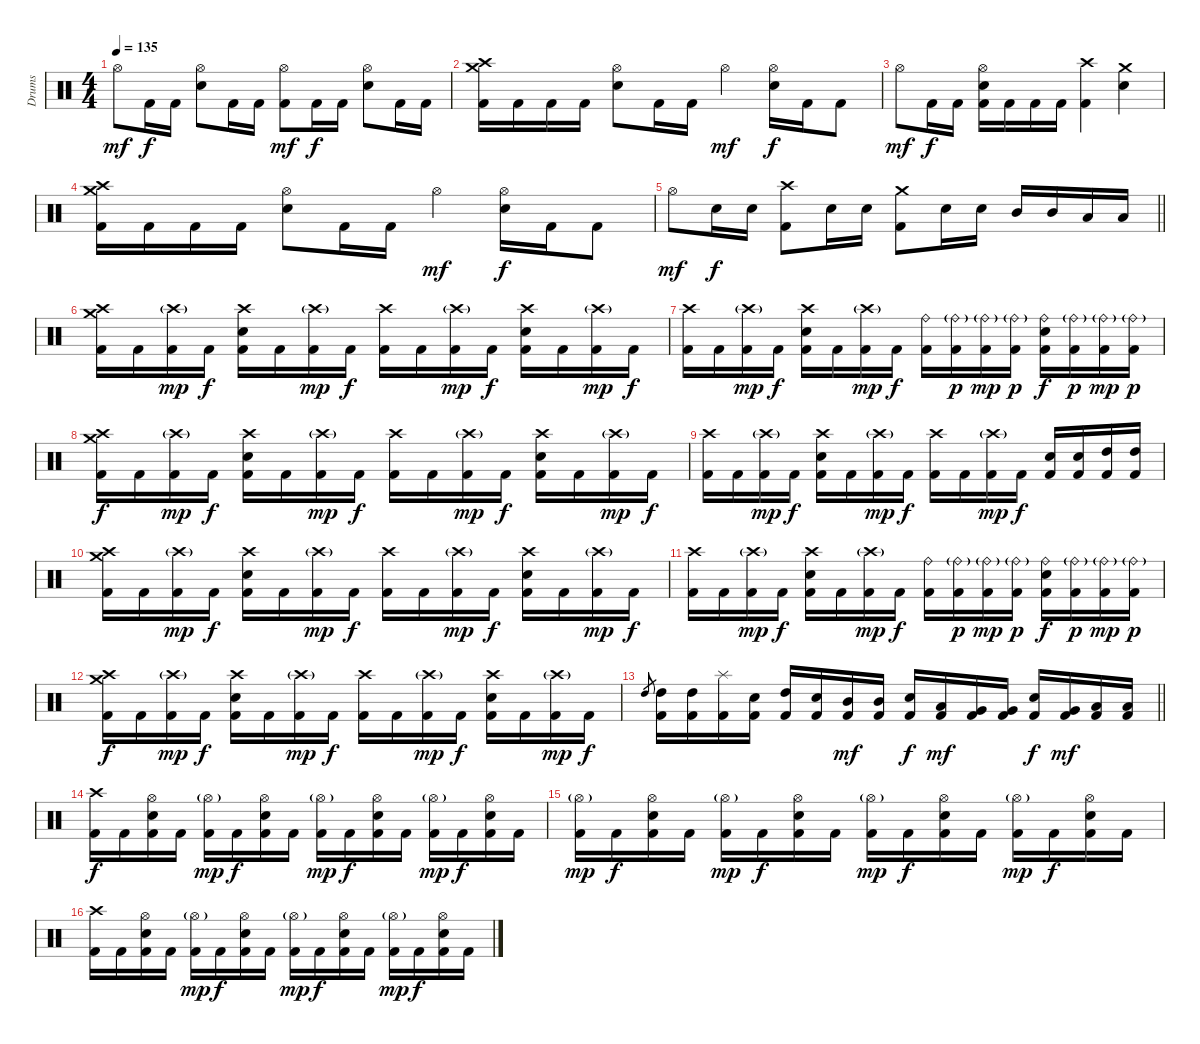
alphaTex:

\track ("Drums" "Drums") {instrument percussion}
\staff {score}
\articulation defaults
\ts (4 4)
\tempo 135
\clef neutral
\ks c "Hi-Hat (open)".8{dy mf} "Kick (hit) 2".16{dy f} "Kick (hit) 2".16
("Hi-Hat (open)" "Electric Snare (hit)").8 "Kick (hit) 2".16 "Kick (hit) 2".16 ("Hi-Hat (open)" "Kick (hit) 2").8{dy mf} "Kick (hit) 2".16{dy f} "Kick (hit) 2".16 ("Hi-Hat (open)" "Electric Snare (hit)").8 "Kick (hit) 2".16 "Kick (hit) 2".16 |
("Crash high (hit)" "Crash medium (hit)" "Kick (hit) 2").16 "Kick (hit) 2".16 "Kick (hit) 2".16 "Kick (hit) 2".16 ("Hi-Hat (open)" "Electric Snare (hit)").8 "Kick (hit) 2".16 "Kick (hit) 2".16 "Hi-Hat (open)".4{dy mf} ("Hi-Hat (open)" "Electric Snare (hit)").16{dy f} "Kick (hit) 2".16 "Kick (hit) 2".8 |
"Hi-Hat (open)".8{dy mf} "Kick (hit) 2".16{dy f} "Kick (hit) 2".16 ("Hi-Hat (open)" "Electric Snare (hit)" "Kick (hit) 2").16 "Kick (hit) 2".16 "Kick (hit) 2".16 "Kick (hit) 2".16 ("Crash high (hit)" "Kick (hit) 2").4 ("Crash medium (hit)" "Electric Snare (hit)").4 |
("Crash high (hit)" "Crash medium (hit)" "Kick (hit) 2").16 "Kick (hit) 2".16 "Kick (hit) 2".16 "Kick (hit) 2".16 ("Hi-Hat (open)" "Electric Snare (hit)").8 "Kick (hit) 2".16 "Kick (hit) 2".16 "Hi-Hat (open)".4{dy mf} ("Hi-Hat (open)" "Electric Snare (hit)").16{dy f} "Kick (hit) 2".16 "Kick (hit) 2".8 |
\barLineRight lightlight "Hi-Hat (open)".8{dy mf} "Electric Snare (hit)".16{dy f} "Electric Snare (hit)".16
("Crash high (hit)" "Kick (hit) 2").8 "Electric Snare (hit)".16 "Electric Snare (hit)".16 ("Crash medium (hit)" "Kick (hit) 2").8 "Electric Snare (hit)".16 "Electric Snare (hit)".16 "Mid Tom (hit)".16 "Mid Tom (hit)".16 "Low Tom (hit)".16 "Low Tom (hit)".16 |
("Crash high (hit)" "Crash medium (hit)" "Kick (hit) 2").16 "Kick (hit) 2".16 ("Crash high (hit)"{g} "Kick (hit) 2").16{dy mp} "Kick (hit) 2".16{dy f} ("Crash high (hit)" "Electric Snare (hit)" "Kick (hit) 2").16 "Kick (hit) 2".16 ("Crash high (hit)"{g} "Kick (hit) 2").16{dy mp} "Kick (hit) 2".16{dy f} ("Crash high (hit)" "Kick (hit) 2").16 "Kick (hit) 2".16 ("Crash high (hit)"{g} "Kick (hit) 2").16{dy mp} "Kick (hit) 2".16{dy f} ("Crash high (hit)" "Electric Snare (hit)" "Kick (hit) 2").16 "Kick (hit) 2".16 ("Crash high (hit)"{g} "Kick (hit) 2").16{dy mp} "Kick (hit) 2".16{dy f} |
("Crash high (hit)" "Kick (hit) 2").16 "Kick (hit) 2".16 ("Crash high (hit)"{g} "Kick (hit) 2").16{dy mp} "Kick (hit) 2".16{dy f} ("Crash high (hit)" "Electric Snare (hit)" "Kick (hit) 2").16 "Kick (hit) 2".16 ("Crash high (hit)"{g} "Kick (hit) 2").16{dy mp} "Kick (hit) 2".16{dy f} ("Ride (bell)" "Kick (hit) 2").16 ("Ride (bell)"{g} "Kick (hit) 2").16{dy p} ("Ride (bell)"{g} "Kick (hit) 2").16{dy mp} ("Ride (bell)"{g} "Kick (hit) 2").16{dy p} ("Ride (bell)" "Electric Snare (hit)" "Kick (hit) 2").16{dy f} ("Ride (bell)"{g} "Kick (hit) 2").16{dy p} ("Ride (bell)"{g} "Kick (hit) 2").16{dy mp} ("Ride (bell)"{g} "Kick (hit) 2").16{dy p} |
("Crash high (hit)" "Crash medium (hit)" "Kick (hit) 2").16{dy f} "Kick (hit) 2".16 ("Crash high (hit)"{g} "Kick (hit) 2").16{dy mp} "Kick (hit) 2".16{dy f} ("Crash high (hit)" "Electric Snare (hit)" "Kick (hit) 2").16 "Kick (hit) 2".16 ("Crash high (hit)"{g} "Kick (hit) 2").16{dy mp} "Kick (hit) 2".16{dy f} ("Crash high (hit)" "Kick (hit) 2").16 "Kick (hit) 2".16 ("Crash high (hit)"{g} "Kick (hit) 2").16{dy mp} "Kick (hit) 2".16{dy f} ("Crash high (hit)" "Electric Snare (hit)" "Kick (hit) 2").16 "Kick (hit) 2".16 ("Crash high (hit)"{g} "Kick (hit) 2").16{dy mp} "Kick (hit) 2".16{dy f} |
("Crash high (hit)" "Kick (hit) 2").16 "Kick (hit) 2".16 ("Crash high (hit)"{g} "Kick (hit) 2").16{dy mp} "Kick (hit) 2".16{dy f} ("Crash high (hit)" "Electric Snare (hit)" "Kick (hit) 2").16 "Kick (hit) 2".16 ("Crash high (hit)"{g} "Kick (hit) 2").16{dy mp} "Kick (hit) 2".16{dy f} ("Crash high (hit)" "Kick (hit) 2").16 "Kick (hit) 2".16 ("Crash high (hit)"{g} "Kick (hit) 2").16{dy mp} "Kick (hit) 2".16{dy f} ("Electric Snare (hit)" "Kick (hit) 2").16 ("Electric Snare (hit)" "Kick (hit) 2").16 ("High Tom (hit)" "Kick (hit) 2").16 ("High Tom (hit)" "Kick (hit) 2").16 |
("Crash high (hit)" "Crash medium (hit)" "Kick (hit) 2").16 "Kick (hit) 2".16 ("Crash high (hit)"{g} "Kick (hit) 2").16{dy mp} "Kick (hit) 2".16{dy f} ("Crash high (hit)" "Electric Snare (hit)" "Kick (hit) 2").16 "Kick (hit) 2".16 ("Crash high (hit)"{g} "Kick (hit) 2").16{dy mp} "Kick (hit) 2".16{dy f} ("Crash high (hit)" "Kick (hit) 2").16 "Kick (hit) 2".16 ("Crash high (hit)"{g} "Kick (hit) 2").16{dy mp} "Kick (hit) 2".16{dy f} ("Crash high (hit)" "Electric Snare (hit)" "Kick (hit) 2").16 "Kick (hit) 2".16 ("Crash high (hit)"{g} "Kick (hit) 2").16{dy mp} "Kick (hit) 2".16{dy f} |
("Crash high (hit)" "Kick (hit) 2").16 "Kick (hit) 2".16 ("Crash high (hit)"{g} "Kick (hit) 2").16{dy mp} "Kick (hit) 2".16{dy f} ("Crash high (hit)" "Electric Snare (hit)" "Kick (hit) 2").16 "Kick (hit) 2".16 ("Crash high (hit)"{g} "Kick (hit) 2").16{dy mp} "Kick (hit) 2".16{dy f} ("Ride (bell)" "Kick (hit) 2").16 ("Ride (bell)"{g} "Kick (hit) 2").16{dy p} ("Ride (bell)"{g} "Kick (hit) 2").16{dy mp} ("Ride (bell)"{g} "Kick (hit) 2").16{dy p} ("Ride (bell)" "Electric Snare (hit)" "Kick (hit) 2").16{dy f} ("Ride (bell)"{g} "Kick (hit) 2").16{dy p} ("Ride (bell)"{g} "Kick (hit) 2").16{dy mp} ("Ride (bell)"{g} "Kick (hit) 2").16{dy p} |
("Crash high (hit)" "Crash medium (hit)" "Kick (hit) 2").16{dy f} "Kick (hit) 2".16 ("Crash high (hit)"{g} "Kick (hit) 2").16{dy mp} "Kick (hit) 2".16{dy f} ("Crash high (hit)" "Electric Snare (hit)" "Kick (hit) 2").16 "Kick (hit) 2".16 ("Crash high (hit)"{g} "Kick (hit) 2").16{dy mp} "Kick (hit) 2".16{dy f} ("Crash high (hit)" "Kick (hit) 2").16 "Kick (hit) 2".16 ("Crash high (hit)"{g} "Kick (hit) 2").16{dy mp} "Kick (hit) 2".16{dy f} ("Crash high (hit)" "Electric Snare (hit)" "Kick (hit) 2").16 "Kick (hit) 2".16 ("Crash high (hit)"{g} "Kick (hit) 2").16{dy mp} "Kick (hit) 2".16{dy f} |
\barLineRight lightlight "High Tom (hit)".8{gr}
("High Tom (hit)" "Kick (hit) 2").16 ("High Tom (hit)" "Kick (hit) 2").16 ("Splash (hit)" "Kick (hit) 2").16 ("Electric Snare (hit)" "Kick (hit) 2").16 ("High Tom (hit)" "Kick (hit) 2").16 ("Electric Snare (hit)" "Kick (hit) 2").16 ("Mid Tom (hit)" "Kick (hit) 2").16{dy mf} ("Mid Tom (hit)" "Kick (hit) 2").16 ("Electric Snare (hit)" "Kick (hit) 2").16{dy f} ("Low Tom (hit)" "Kick (hit) 2").16{dy mf} ("Very Low Tom (hit)" "Kick (hit) 2").16 ("Very Low Tom (hit)" "Kick (hit) 2").16 ("Electric Snare (hit)" "Kick (hit) 2").16{dy f} ("Very Low Tom (hit)" "Kick (hit) 2").16{dy mf} ("Low Floor Tom (hit)" "Kick (hit) 2").16 ("Low Floor Tom (hit)" "Kick (hit) 2").16 |
("Crash high (hit)" "Kick (hit) 2").16{dy f} "Kick (hit) 2".16 ("Hi-Hat (open)" "Electric Snare (hit)" "Kick (hit) 2").16 "Kick (hit) 2".16 ("Hi-Hat (open)"{g} "Kick (hit) 2").16{dy mp} "Kick (hit) 2".16{dy f} ("Hi-Hat (open)" "Electric Snare (hit)" "Kick (hit) 2").16 "Kick (hit) 2".16 ("Hi-Hat (open)"{g} "Kick (hit) 2").16{dy mp} "Kick (hit) 2".16{dy f} ("Hi-Hat (open)" "Electric Snare (hit)" "Kick (hit) 2").16 "Kick (hit) 2".16 ("Hi-Hat (open)"{g} "Kick (hit) 2").16{dy mp} "Kick (hit) 2".16{dy f} ("Hi-Hat (open)" "Electric Snare (hit)" "Kick (hit) 2").16 "Kick (hit) 2".16 |
("Hi-Hat (open)"{g} "Kick (hit) 2").16{dy mp} "Kick (hit) 2".16{dy f} ("Hi-Hat (open)" "Electric Snare (hit)" "Kick (hit) 2").16 "Kick (hit) 2".16 ("Hi-Hat (open)"{g} "Kick (hit) 2").16{dy mp} "Kick (hit) 2".16{dy f} ("Hi-Hat (open)" "Electric Snare (hit)" "Kick (hit) 2").16 "Kick (hit) 2".16 ("Hi-Hat (open)"{g} "Kick (hit) 2").16{dy mp} "Kick (hit) 2".16{dy f} ("Hi-Hat (open)" "Electric Snare (hit)" "Kick (hit) 2").16 "Kick (hit) 2".16 ("Hi-Hat (open)"{g} "Kick (hit) 2").16{dy mp} "Kick (hit) 2".16{dy f} ("Hi-Hat (open)" "Electric Snare (hit)" "Kick (hit) 2").16 "Kick (hit) 2".16 |
("Crash high (hit)" "Kick (hit) 2").16 "Kick (hit) 2".16 ("Hi-Hat (open)" "Electric Snare (hit)" "Kick (hit) 2").16 "Kick (hit) 2".16 ("Hi-Hat (open)"{g} "Kick (hit) 2").16{dy mp} "Kick (hit) 2".16{dy f} ("Hi-Hat (open)" "Electric Snare (hit)" "Kick (hit) 2").16 "Kick (hit) 2".16 ("Hi-Hat (open)"{g} "Kick (hit) 2").16{dy mp} "Kick (hit) 2".16{dy f} ("Hi-Hat (open)" "Electric Snare (hit)" "Kick (hit) 2").16 "Kick (hit) 2".16 ("Hi-Hat (open)"{g} "Kick (hit) 2").16{dy mp} "Kick (hit) 2".16{dy f} ("Hi-Hat (open)" "Electric Snare (hit)" "Kick (hit) 2").16 "Kick (hit) 2".16
